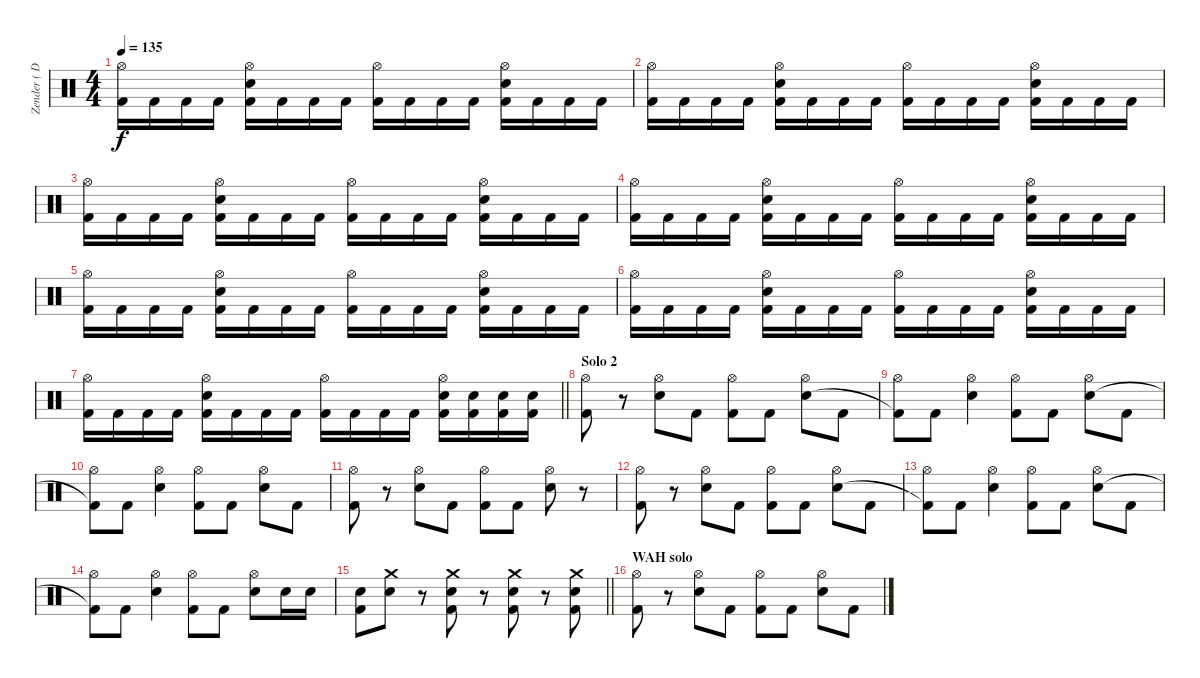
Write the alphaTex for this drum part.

\track ("Zender ( Drums )" "Zender ( D") {instrument percussion}
\staff {score}
\articulation defaults
\ts (4 4)
\tempo 135
\clef neutral
\ks c
("Hi-Hat (open)" "Kick (hit) 2").16{dy f} "Kick (hit) 2".16 "Kick (hit) 2".16 "Kick (hit) 2".16 ("Hi-Hat (open)" "Snare (hit) 2" "Kick (hit) 2").16 "Kick (hit) 2".16 "Kick (hit) 2".16 "Kick (hit) 2".16 ("Hi-Hat (open)" "Kick (hit) 2").16 "Kick (hit) 2".16 "Kick (hit) 2".16 "Kick (hit) 2".16 ("Hi-Hat (open)" "Snare (hit) 2" "Kick (hit) 2").16 "Kick (hit) 2".16 "Kick (hit) 2".16 "Kick (hit) 2".16 |
("Hi-Hat (open)" "Kick (hit) 2").16 "Kick (hit) 2".16 "Kick (hit) 2".16 "Kick (hit) 2".16 ("Hi-Hat (open)" "Snare (hit) 2" "Kick (hit) 2").16 "Kick (hit) 2".16 "Kick (hit) 2".16 "Kick (hit) 2".16 ("Hi-Hat (open)" "Kick (hit) 2").16 "Kick (hit) 2".16 "Kick (hit) 2".16 "Kick (hit) 2".16 ("Hi-Hat (open)" "Snare (hit) 2" "Kick (hit) 2").16 "Kick (hit) 2".16 "Kick (hit) 2".16 "Kick (hit) 2".16 |
("Hi-Hat (open)" "Kick (hit) 2").16 "Kick (hit) 2".16 "Kick (hit) 2".16 "Kick (hit) 2".16 ("Hi-Hat (open)" "Snare (hit) 2" "Kick (hit) 2").16 "Kick (hit) 2".16 "Kick (hit) 2".16 "Kick (hit) 2".16 ("Hi-Hat (open)" "Kick (hit) 2").16 "Kick (hit) 2".16 "Kick (hit) 2".16 "Kick (hit) 2".16 ("Hi-Hat (open)" "Snare (hit) 2" "Kick (hit) 2").16 "Kick (hit) 2".16 "Kick (hit) 2".16 "Kick (hit) 2".16 |
("Hi-Hat (open)" "Kick (hit) 2").16 "Kick (hit) 2".16 "Kick (hit) 2".16 "Kick (hit) 2".16 ("Hi-Hat (open)" "Snare (hit) 2" "Kick (hit) 2").16 "Kick (hit) 2".16 "Kick (hit) 2".16 "Kick (hit) 2".16 ("Hi-Hat (open)" "Kick (hit) 2").16 "Kick (hit) 2".16 "Kick (hit) 2".16 "Kick (hit) 2".16 ("Hi-Hat (open)" "Snare (hit) 2" "Kick (hit) 2").16 "Kick (hit) 2".16 "Kick (hit) 2".16 "Kick (hit) 2".16 |
("Hi-Hat (open)" "Kick (hit) 2").16 "Kick (hit) 2".16 "Kick (hit) 2".16 "Kick (hit) 2".16 ("Hi-Hat (open)" "Snare (hit) 2" "Kick (hit) 2").16 "Kick (hit) 2".16 "Kick (hit) 2".16 "Kick (hit) 2".16 ("Hi-Hat (open)" "Kick (hit) 2").16 "Kick (hit) 2".16 "Kick (hit) 2".16 "Kick (hit) 2".16 ("Hi-Hat (open)" "Snare (hit) 2" "Kick (hit) 2").16 "Kick (hit) 2".16 "Kick (hit) 2".16 "Kick (hit) 2".16 |
("Hi-Hat (open)" "Kick (hit) 2").16 "Kick (hit) 2".16 "Kick (hit) 2".16 "Kick (hit) 2".16 ("Hi-Hat (open)" "Snare (hit) 2" "Kick (hit) 2").16 "Kick (hit) 2".16 "Kick (hit) 2".16 "Kick (hit) 2".16 ("Hi-Hat (open)" "Kick (hit) 2").16 "Kick (hit) 2".16 "Kick (hit) 2".16 "Kick (hit) 2".16 ("Hi-Hat (open)" "Snare (hit) 2" "Kick (hit) 2").16 "Kick (hit) 2".16 "Kick (hit) 2".16 "Kick (hit) 2".16 |
\barLineRight lightlight
("Hi-Hat (open)" "Kick (hit) 2").16 "Kick (hit) 2".16 "Kick (hit) 2".16 "Kick (hit) 2".16 ("Hi-Hat (open)" "Snare (hit) 2" "Kick (hit) 2").16 "Kick (hit) 2".16 "Kick (hit) 2".16 "Kick (hit) 2".16 ("Hi-Hat (open)" "Kick (hit) 2").16 "Kick (hit) 2".16 "Kick (hit) 2".16 "Kick (hit) 2".16 ("Hi-Hat (open)" "Snare (hit) 2" "Kick (hit) 2").16 ("Snare (hit) 2" "Kick (hit) 2").16 ("Snare (hit) 2" "Kick (hit) 2").16 ("Snare (hit) 2" "Kick (hit) 2").16 |
\section ("" "Solo 2")
("Hi-Hat (open)" "Kick (hit) 2").8 r.8 ("Hi-Hat (open)" "Snare (hit) 2").8 "Kick (hit) 2".8 ("Hi-Hat (open)" "Kick (hit) 2").8 "Kick (hit) 2".8 ("Hi-Hat (open)" "Snare (hit) 2").8 "Kick (hit) 2".8 |
("Hi-Hat (open)" "Kick (hit) 2"{t}).8 "Kick (hit) 2".8 ("Hi-Hat (open)" "Snare (hit) 2").4 ("Hi-Hat (open)" "Kick (hit) 2").8 "Kick (hit) 2".8 ("Hi-Hat (open)" "Snare (hit) 2").8 "Kick (hit) 2".8 |
("Hi-Hat (open)" "Kick (hit) 2"{t}).8 "Kick (hit) 2".8 ("Hi-Hat (open)" "Snare (hit) 2").4 ("Hi-Hat (open)" "Kick (hit) 2").8 "Kick (hit) 2".8 ("Hi-Hat (open)" "Snare (hit) 2").8 "Kick (hit) 2".8 |
("Hi-Hat (open)" "Kick (hit) 2").8 r.8 ("Hi-Hat (open)" "Snare (hit) 2").8 "Kick (hit) 2".8 ("Hi-Hat (open)" "Kick (hit) 2").8 "Kick (hit) 2".8 ("Hi-Hat (open)" "Snare (hit) 2").8 r.8 |
("Hi-Hat (open)" "Kick (hit) 2").8 r.8 ("Hi-Hat (open)" "Snare (hit) 2").8 "Kick (hit) 2".8 ("Hi-Hat (open)" "Kick (hit) 2").8 "Kick (hit) 2".8 ("Hi-Hat (open)" "Snare (hit) 2").8 "Kick (hit) 2".8 |
("Hi-Hat (open)" "Kick (hit) 2"{t}).8 "Kick (hit) 2".8 ("Hi-Hat (open)" "Snare (hit) 2").4 ("Hi-Hat (open)" "Kick (hit) 2").8 "Kick (hit) 2".8 ("Hi-Hat (open)" "Snare (hit) 2").8 "Kick (hit) 2".8 |
("Hi-Hat (open)" "Kick (hit) 2"{t}).8 "Kick (hit) 2".8 ("Hi-Hat (open)" "Snare (hit) 2").4 ("Hi-Hat (open)" "Kick (hit) 2").8 "Kick (hit) 2".8 ("Hi-Hat (open)" "Snare (hit) 2").8 "Snare (hit) 2".16 "Snare (hit) 2".16 |
\barLineRight lightlight
("Snare (hit) 2" "Kick (hit) 2").8 ("Crash medium (hit)" "Snare (hit) 2").8 r.8 ("Crash medium (hit)" "Snare (hit) 2" "Kick (hit) 2").8 r.8 ("Crash medium (hit)" "Snare (hit) 2" "Kick (hit) 2").8 r.8 ("Crash medium (hit)" "Snare (hit) 2" "Kick (hit) 2").8 |
\section ("" "WAH solo")
("Hi-Hat (open)" "Kick (hit) 2").8 r.8 ("Hi-Hat (open)" "Snare (hit) 2").8 "Kick (hit) 2".8 ("Hi-Hat (open)" "Kick (hit) 2").8 "Kick (hit) 2".8 ("Hi-Hat (open)" "Snare (hit) 2").8 "Kick (hit) 2".8
